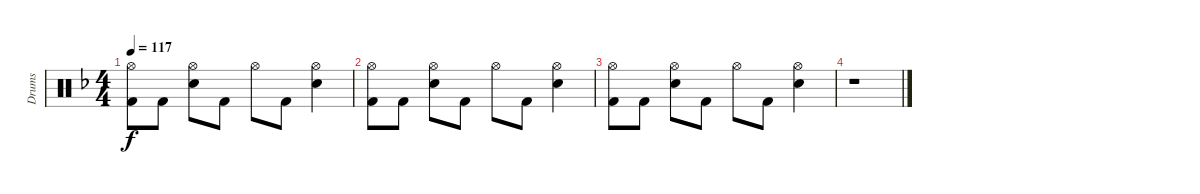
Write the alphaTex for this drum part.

\track ("Drums" "Drums") {instrument percussion}
\staff {score}
\articulation defaults
\ts (4 4)
\tempo 117
\clef neutral
\ks dminor
("Hi-Hat (open)" "Kick (hit) 2").8{dy f} "Kick (hit) 2".8 ("Hi-Hat (open)" "Snare (hit) 2").8 "Kick (hit) 2".8 "Hi-Hat (open)".8 "Kick (hit) 2".8 ("Hi-Hat (open)" "Snare (hit) 2").4 |
("Hi-Hat (open)" "Kick (hit) 2").8 "Kick (hit) 2".8 ("Hi-Hat (open)" "Snare (hit) 2").8 "Kick (hit) 2".8 "Hi-Hat (open)".8 "Kick (hit) 2".8 ("Hi-Hat (open)" "Snare (hit) 2").4 |
("Hi-Hat (open)" "Kick (hit) 2").8 "Kick (hit) 2".8 ("Hi-Hat (open)" "Snare (hit) 2").8 "Kick (hit) 2".8 "Hi-Hat (open)".8 "Kick (hit) 2".8 ("Hi-Hat (open)" "Snare (hit) 2").4 |
r.1
